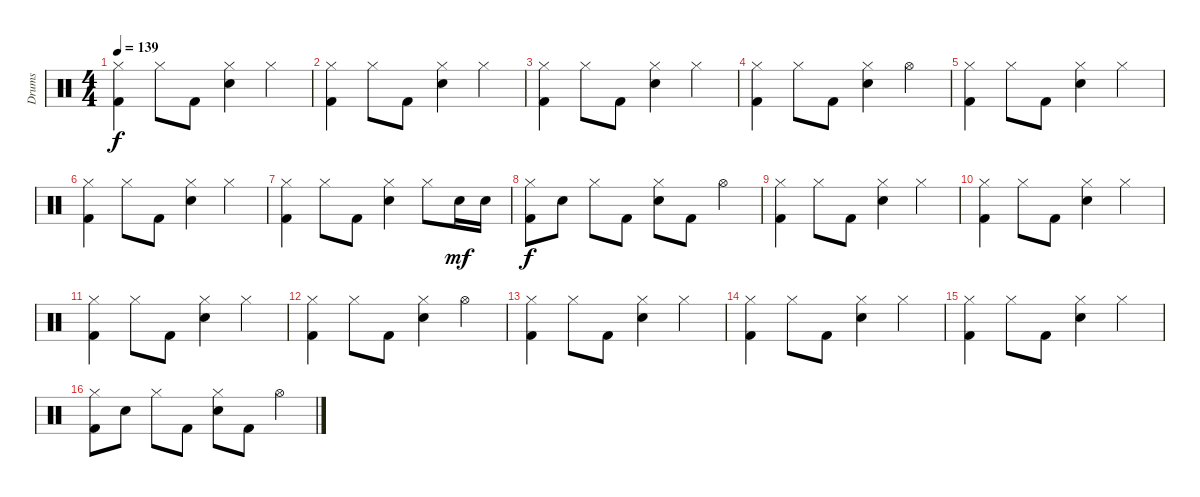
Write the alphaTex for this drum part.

\track ("Drums" "Drums") {instrument percussion}
\staff {score}
\articulation defaults
\ts (4 4)
\tempo 139
\clef neutral
\ks c
("Hi-Hat (closed)" "Kick (hit) 2").4{dy f} "Hi-Hat (closed)".8 "Kick (hit) 2".8 ("Hi-Hat (closed)" "Electric Snare (hit)").4 "Hi-Hat (closed)".4 |
("Hi-Hat (closed)" "Kick (hit) 2").4 "Hi-Hat (closed)".8 "Kick (hit) 2".8 ("Hi-Hat (closed)" "Electric Snare (hit)").4 "Hi-Hat (closed)".4 |
("Hi-Hat (closed)" "Kick (hit) 2").4 "Hi-Hat (closed)".8 "Kick (hit) 2".8 ("Hi-Hat (closed)" "Electric Snare (hit)").4 "Hi-Hat (closed)".4 |
("Hi-Hat (closed)" "Kick (hit) 2").4 "Hi-Hat (closed)".8 "Kick (hit) 2".8 ("Hi-Hat (closed)" "Electric Snare (hit)").4 "Hi-Hat (open)".4 |
("Hi-Hat (closed)" "Kick (hit) 2").4 "Hi-Hat (closed)".8 "Kick (hit) 2".8 ("Hi-Hat (closed)" "Electric Snare (hit)").4 "Hi-Hat (closed)".4 |
("Hi-Hat (closed)" "Kick (hit) 2").4 "Hi-Hat (closed)".8 "Kick (hit) 2".8 ("Hi-Hat (closed)" "Electric Snare (hit)").4 "Hi-Hat (closed)".4 |
("Hi-Hat (closed)" "Kick (hit) 2").4 "Hi-Hat (closed)".8 "Kick (hit) 2".8 ("Hi-Hat (closed)" "Electric Snare (hit)").4 "Hi-Hat (closed)".8 "Electric Snare (hit)".16{dy mf} "Electric Snare (hit)".16 |
("Hi-Hat (closed)" "Kick (hit) 2").8{dy f} "Electric Snare (hit)".8 "Hi-Hat (closed)".8 "Kick (hit) 2".8 ("Hi-Hat (closed)" "Electric Snare (hit)").8 "Kick (hit) 2".8 "Hi-Hat (open)".4 |
("Hi-Hat (closed)" "Kick (hit) 2").4 "Hi-Hat (closed)".8 "Kick (hit) 2".8 ("Hi-Hat (closed)" "Electric Snare (hit)").4 "Hi-Hat (closed)".4 |
("Hi-Hat (closed)" "Kick (hit) 2").4 "Hi-Hat (closed)".8 "Kick (hit) 2".8 ("Hi-Hat (closed)" "Electric Snare (hit)").4 "Hi-Hat (closed)".4 |
("Hi-Hat (closed)" "Kick (hit) 2").4 "Hi-Hat (closed)".8 "Kick (hit) 2".8 ("Hi-Hat (closed)" "Electric Snare (hit)").4 "Hi-Hat (closed)".4 |
("Hi-Hat (closed)" "Kick (hit) 2").4 "Hi-Hat (closed)".8 "Kick (hit) 2".8 ("Hi-Hat (closed)" "Electric Snare (hit)").4 "Hi-Hat (open)".4 |
("Hi-Hat (closed)" "Kick (hit) 2").4 "Hi-Hat (closed)".8 "Kick (hit) 2".8 ("Hi-Hat (closed)" "Electric Snare (hit)").4 "Hi-Hat (closed)".4 |
("Hi-Hat (closed)" "Kick (hit) 2").4 "Hi-Hat (closed)".8 "Kick (hit) 2".8 ("Hi-Hat (closed)" "Electric Snare (hit)").4 "Hi-Hat (closed)".4 |
("Hi-Hat (closed)" "Kick (hit) 2").4 "Hi-Hat (closed)".8 "Kick (hit) 2".8 ("Hi-Hat (closed)" "Electric Snare (hit)").4 "Hi-Hat (closed)".4 |
("Hi-Hat (closed)" "Kick (hit) 2").8 "Electric Snare (hit)".8 "Hi-Hat (closed)".8 "Kick (hit) 2".8 ("Hi-Hat (closed)" "Electric Snare (hit)").8 "Kick (hit) 2".8 "Hi-Hat (open)".4
